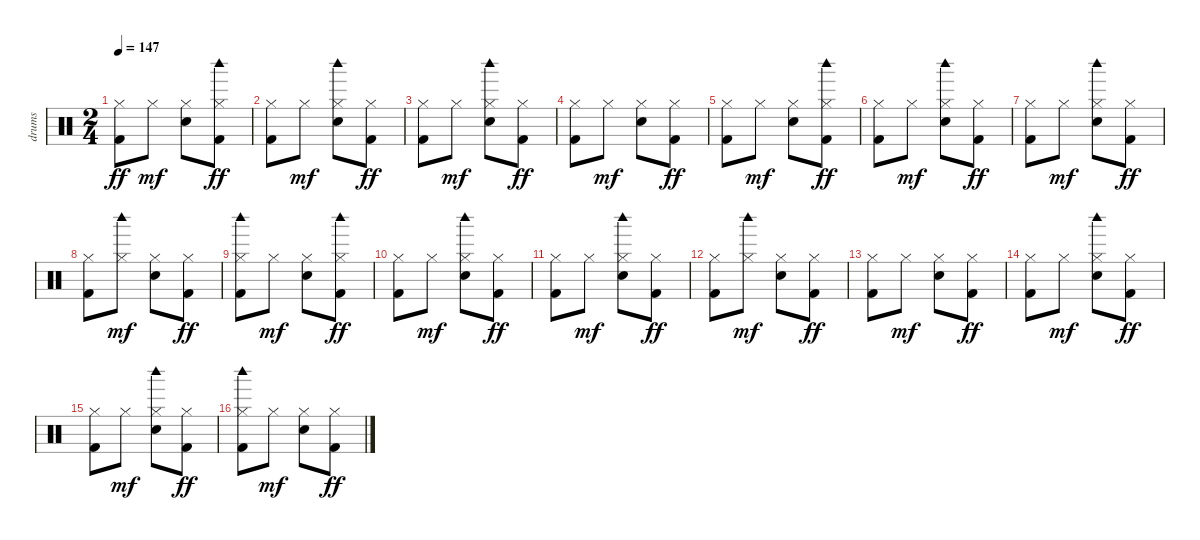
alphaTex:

\track ("drums" "drums") {instrument percussion}
\staff {score}
\articulation defaults
\ts (2 4)
\tempo 147
\clef neutral
\ks c
("Hi-Hat (closed)" "Kick (hit) 2").8{dy ff} "Hi-Hat (closed)".8{dy mf} ("Hi-Hat (closed)" "Electric Snare (hit)").8 ("Hi-Hat (closed)" "Woodblock high (hit)" "Kick (hit) 2").8{dy ff} |
("Hi-Hat (closed)" "Kick (hit) 2").8 "Hi-Hat (closed)".8{dy mf} ("Hi-Hat (closed)" "Woodblock high (hit)" "Electric Snare (hit)").8 ("Hi-Hat (closed)" "Kick (hit) 2").8{dy ff} |
("Hi-Hat (closed)" "Kick (hit) 2").8 "Hi-Hat (closed)".8{dy mf} ("Hi-Hat (closed)" "Woodblock high (hit)" "Electric Snare (hit)").8 ("Hi-Hat (closed)" "Kick (hit) 2").8{dy ff} |
("Hi-Hat (closed)" "Kick (hit) 2").8 "Hi-Hat (closed)".8{dy mf} ("Hi-Hat (closed)" "Electric Snare (hit)").8 ("Hi-Hat (closed)" "Kick (hit) 2").8{dy ff} |
("Hi-Hat (closed)" "Kick (hit) 2").8 "Hi-Hat (closed)".8{dy mf} ("Hi-Hat (closed)" "Electric Snare (hit)").8 ("Hi-Hat (closed)" "Woodblock high (hit)" "Kick (hit) 2").8{dy ff} |
("Hi-Hat (closed)" "Kick (hit) 2").8 "Hi-Hat (closed)".8{dy mf} ("Hi-Hat (closed)" "Woodblock high (hit)" "Electric Snare (hit)").8 ("Hi-Hat (closed)" "Kick (hit) 2").8{dy ff} |
("Hi-Hat (closed)" "Kick (hit) 2").8 "Hi-Hat (closed)".8{dy mf} ("Hi-Hat (closed)" "Woodblock high (hit)" "Electric Snare (hit)").8 ("Hi-Hat (closed)" "Kick (hit) 2").8{dy ff} |
("Hi-Hat (closed)" "Kick (hit) 2").8 ("Hi-Hat (closed)" "Woodblock high (hit)").8{dy mf} ("Hi-Hat (closed)" "Electric Snare (hit)").8 ("Hi-Hat (closed)" "Kick (hit) 2").8{dy ff} |
("Hi-Hat (closed)" "Woodblock high (hit)" "Kick (hit) 2").8 "Hi-Hat (closed)".8{dy mf} ("Hi-Hat (closed)" "Electric Snare (hit)").8 ("Hi-Hat (closed)" "Woodblock high (hit)" "Kick (hit) 2").8{dy ff} |
("Hi-Hat (closed)" "Kick (hit) 2").8 "Hi-Hat (closed)".8{dy mf} ("Hi-Hat (closed)" "Woodblock high (hit)" "Electric Snare (hit)").8 ("Hi-Hat (closed)" "Kick (hit) 2").8{dy ff} |
("Hi-Hat (closed)" "Kick (hit) 2").8 "Hi-Hat (closed)".8{dy mf} ("Hi-Hat (closed)" "Woodblock high (hit)" "Electric Snare (hit)").8 ("Hi-Hat (closed)" "Kick (hit) 2").8{dy ff} |
("Hi-Hat (closed)" "Kick (hit) 2").8 ("Hi-Hat (closed)" "Woodblock high (hit)").8{dy mf} ("Hi-Hat (closed)" "Electric Snare (hit)").8 ("Hi-Hat (closed)" "Kick (hit) 2").8{dy ff} |
("Hi-Hat (closed)" "Kick (hit) 2").8 "Hi-Hat (closed)".8{dy mf} ("Hi-Hat (closed)" "Electric Snare (hit)").8 ("Hi-Hat (closed)" "Kick (hit) 2").8{dy ff} |
("Hi-Hat (closed)" "Kick (hit) 2").8 "Hi-Hat (closed)".8{dy mf} ("Hi-Hat (closed)" "Woodblock high (hit)" "Electric Snare (hit)").8 ("Hi-Hat (closed)" "Kick (hit) 2").8{dy ff} |
("Hi-Hat (closed)" "Kick (hit) 2").8 "Hi-Hat (closed)".8{dy mf} ("Hi-Hat (closed)" "Woodblock high (hit)" "Electric Snare (hit)").8 ("Hi-Hat (closed)" "Kick (hit) 2").8{dy ff} |
("Hi-Hat (closed)" "Woodblock high (hit)" "Kick (hit) 2").8 "Hi-Hat (closed)".8{dy mf} ("Hi-Hat (closed)" "Electric Snare (hit)").8 ("Hi-Hat (closed)" "Kick (hit) 2").8{dy ff}
